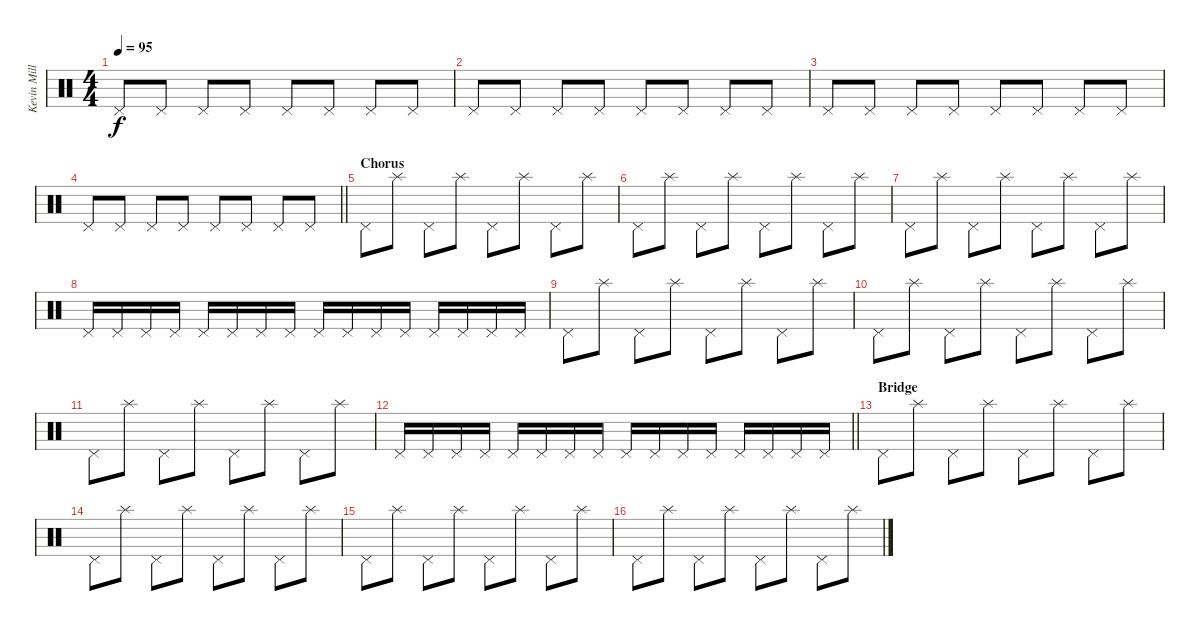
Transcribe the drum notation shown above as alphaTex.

\track ("Kevin Miller (Drums)" "Kevin Mill") {instrument percussion}
\staff {score}
\articulation defaults
\ts (4 4)
\tempo 95
\clef neutral
\ks c "Pedal Hi-Hat (hit)".8{dy f} "Pedal Hi-Hat (hit)".8 "Pedal Hi-Hat (hit)".8 "Pedal Hi-Hat (hit)".8 "Pedal Hi-Hat (hit)".8 "Pedal Hi-Hat (hit)".8 "Pedal Hi-Hat (hit)".8 "Pedal Hi-Hat (hit)".8
|
"Pedal Hi-Hat (hit)".8 "Pedal Hi-Hat (hit)".8 "Pedal Hi-Hat (hit)".8 "Pedal Hi-Hat (hit)".8 "Pedal Hi-Hat (hit)".8 "Pedal Hi-Hat (hit)".8 "Pedal Hi-Hat (hit)".8 "Pedal Hi-Hat (hit)".8 |
"Pedal Hi-Hat (hit)".8 "Pedal Hi-Hat (hit)".8 "Pedal Hi-Hat (hit)".8 "Pedal Hi-Hat (hit)".8 "Pedal Hi-Hat (hit)".8 "Pedal Hi-Hat (hit)".8 "Pedal Hi-Hat (hit)".8 "Pedal Hi-Hat (hit)".8 |
\barLineRight lightlight "Pedal Hi-Hat (hit)".8 "Pedal Hi-Hat (hit)".8 "Pedal Hi-Hat (hit)".8 "Pedal Hi-Hat (hit)".8 "Pedal Hi-Hat (hit)".8 "Pedal Hi-Hat (hit)".8 "Pedal Hi-Hat (hit)".8 "Pedal Hi-Hat (hit)".8
|
\section ("" "Chorus")
"Pedal Hi-Hat (hit)".8 "Splash (hit)".8 "Pedal Hi-Hat (hit)".8 "Splash (hit)".8 "Pedal Hi-Hat (hit)".8 "Splash (hit)".8 "Pedal Hi-Hat (hit)".8 "Splash (hit)".8 |
"Pedal Hi-Hat (hit)".8 "Splash (hit)".8 "Pedal Hi-Hat (hit)".8 "Splash (hit)".8 "Pedal Hi-Hat (hit)".8 "Splash (hit)".8 "Pedal Hi-Hat (hit)".8 "Splash (hit)".8 |
"Pedal Hi-Hat (hit)".8 "Splash (hit)".8 "Pedal Hi-Hat (hit)".8 "Splash (hit)".8 "Pedal Hi-Hat (hit)".8 "Splash (hit)".8 "Pedal Hi-Hat (hit)".8 "Splash (hit)".8 |
"Pedal Hi-Hat (hit)".16 "Pedal Hi-Hat (hit)".16 "Pedal Hi-Hat (hit)".16 "Pedal Hi-Hat (hit)".16 "Pedal Hi-Hat (hit)".16 "Pedal Hi-Hat (hit)".16 "Pedal Hi-Hat (hit)".16 "Pedal Hi-Hat (hit)".16 "Pedal Hi-Hat (hit)".16 "Pedal Hi-Hat (hit)".16 "Pedal Hi-Hat (hit)".16 "Pedal Hi-Hat (hit)".16 "Pedal Hi-Hat (hit)".16 "Pedal Hi-Hat (hit)".16 "Pedal Hi-Hat (hit)".16 "Pedal Hi-Hat (hit)".16 |
"Pedal Hi-Hat (hit)".8 "Splash (hit)".8 "Pedal Hi-Hat (hit)".8 "Splash (hit)".8 "Pedal Hi-Hat (hit)".8 "Splash (hit)".8 "Pedal Hi-Hat (hit)".8 "Splash (hit)".8 |
"Pedal Hi-Hat (hit)".8 "Splash (hit)".8 "Pedal Hi-Hat (hit)".8 "Splash (hit)".8 "Pedal Hi-Hat (hit)".8 "Splash (hit)".8 "Pedal Hi-Hat (hit)".8 "Splash (hit)".8 |
"Pedal Hi-Hat (hit)".8 "Splash (hit)".8 "Pedal Hi-Hat (hit)".8 "Splash (hit)".8 "Pedal Hi-Hat (hit)".8 "Splash (hit)".8 "Pedal Hi-Hat (hit)".8 "Splash (hit)".8 |
\barLineRight lightlight "Pedal Hi-Hat (hit)".16 "Pedal Hi-Hat (hit)".16 "Pedal Hi-Hat (hit)".16 "Pedal Hi-Hat (hit)".16 "Pedal Hi-Hat (hit)".16 "Pedal Hi-Hat (hit)".16 "Pedal Hi-Hat (hit)".16 "Pedal Hi-Hat (hit)".16 "Pedal Hi-Hat (hit)".16 "Pedal Hi-Hat (hit)".16 "Pedal Hi-Hat (hit)".16 "Pedal Hi-Hat (hit)".16 "Pedal Hi-Hat (hit)".16 "Pedal Hi-Hat (hit)".16 "Pedal Hi-Hat (hit)".16 "Pedal Hi-Hat (hit)".16
|
\section ("" "Bridge")
"Pedal Hi-Hat (hit)".8 "Splash (hit)".8 "Pedal Hi-Hat (hit)".8 "Splash (hit)".8 "Pedal Hi-Hat (hit)".8 "Splash (hit)".8 "Pedal Hi-Hat (hit)".8 "Splash (hit)".8 |
"Pedal Hi-Hat (hit)".8 "Splash (hit)".8 "Pedal Hi-Hat (hit)".8 "Splash (hit)".8 "Pedal Hi-Hat (hit)".8 "Splash (hit)".8 "Pedal Hi-Hat (hit)".8 "Splash (hit)".8 |
"Pedal Hi-Hat (hit)".8 "Splash (hit)".8 "Pedal Hi-Hat (hit)".8 "Splash (hit)".8 "Pedal Hi-Hat (hit)".8 "Splash (hit)".8 "Pedal Hi-Hat (hit)".8 "Splash (hit)".8 |
"Pedal Hi-Hat (hit)".8 "Splash (hit)".8 "Pedal Hi-Hat (hit)".8 "Splash (hit)".8 "Pedal Hi-Hat (hit)".8 "Splash (hit)".8 "Pedal Hi-Hat (hit)".8 "Splash (hit)".8
